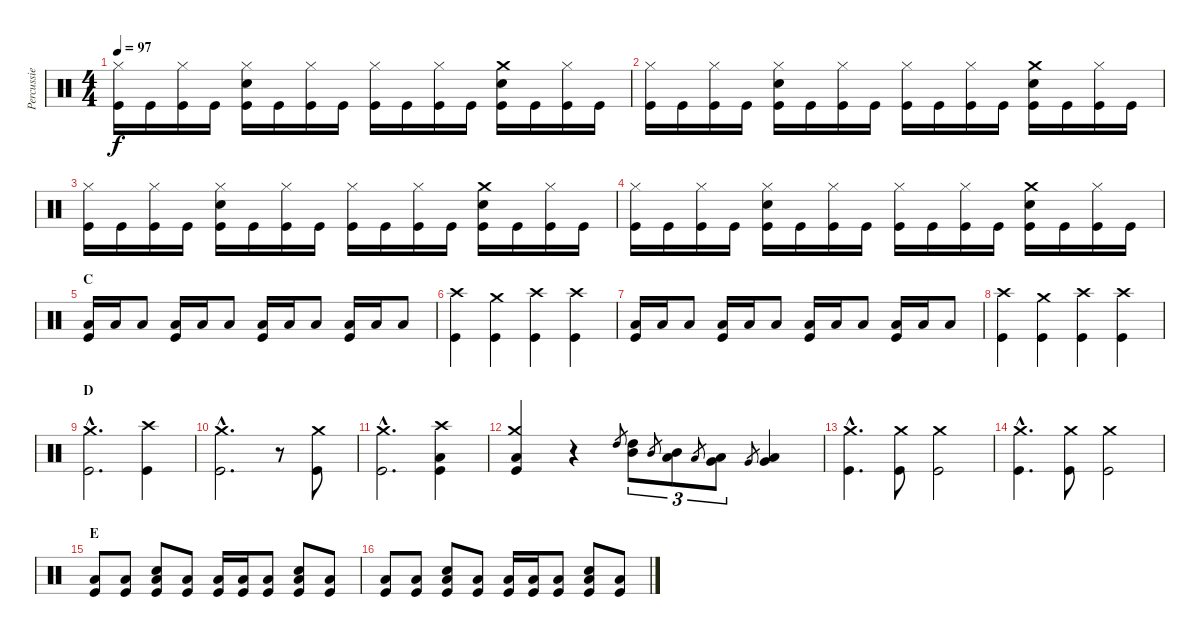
\track ("Percussie" "Percussie") {instrument percussion}
\staff {score}
\articulation defaults
\ts (4 4)
\tempo 97
\clef neutral
\ks c
("Hi-Hat (closed)" "Kick (hit)").16{dy f} "Kick (hit)".16 ("Hi-Hat (closed)" "Kick (hit)").16 "Kick (hit)".16 ("Hi-Hat (closed)" "Electric Snare (hit)" "Kick (hit)").16 "Kick (hit)".16 ("Hi-Hat (closed)" "Kick (hit)").16 "Kick (hit)".16 ("Hi-Hat (closed)" "Kick (hit)").16 "Kick (hit)".16 ("Hi-Hat (closed)" "Kick (hit)").16 "Kick (hit)".16 ("Crash medium (hit)" "Electric Snare (hit)" "Kick (hit)").16 "Kick (hit)".16 ("Hi-Hat (closed)" "Kick (hit)").16 "Kick (hit)".16 |
("Hi-Hat (closed)" "Kick (hit)").16 "Kick (hit)".16 ("Hi-Hat (closed)" "Kick (hit)").16 "Kick (hit)".16 ("Hi-Hat (closed)" "Electric Snare (hit)" "Kick (hit)").16 "Kick (hit)".16 ("Hi-Hat (closed)" "Kick (hit)").16 "Kick (hit)".16 ("Hi-Hat (closed)" "Kick (hit)").16 "Kick (hit)".16 ("Hi-Hat (closed)" "Kick (hit)").16 "Kick (hit)".16 ("Crash medium (hit)" "Electric Snare (hit)" "Kick (hit)").16 "Kick (hit)".16 ("Hi-Hat (closed)" "Kick (hit)").16 "Kick (hit)".16 |
("Hi-Hat (closed)" "Kick (hit)").16 "Kick (hit)".16 ("Hi-Hat (closed)" "Kick (hit)").16 "Kick (hit)".16 ("Hi-Hat (closed)" "Electric Snare (hit)" "Kick (hit)").16 "Kick (hit)".16 ("Hi-Hat (closed)" "Kick (hit)").16 "Kick (hit)".16 ("Hi-Hat (closed)" "Kick (hit)").16 "Kick (hit)".16 ("Hi-Hat (closed)" "Kick (hit)").16 "Kick (hit)".16 ("Crash medium (hit)" "Electric Snare (hit)" "Kick (hit)").16 "Kick (hit)".16 ("Hi-Hat (closed)" "Kick (hit)").16 "Kick (hit)".16 |
("Hi-Hat (closed)" "Kick (hit)").16 "Kick (hit)".16 ("Hi-Hat (closed)" "Kick (hit)").16 "Kick (hit)".16 ("Hi-Hat (closed)" "Electric Snare (hit)" "Kick (hit)").16 "Kick (hit)".16 ("Hi-Hat (closed)" "Kick (hit)").16 "Kick (hit)".16 ("Hi-Hat (closed)" "Kick (hit)").16 "Kick (hit)".16 ("Hi-Hat (closed)" "Kick (hit)").16 "Kick (hit)".16 ("Crash medium (hit)" "Electric Snare (hit)" "Kick (hit)").16 "Kick (hit)".16 ("Hi-Hat (closed)" "Kick (hit)").16 "Kick (hit)".16 |
\section ("" "C")
("Low Floor Tom (hit)" "Kick (hit)").16 "Low Floor Tom (hit)".16 "Low Floor Tom (hit)".8 ("Low Floor Tom (hit)" "Kick (hit)").16 "Low Floor Tom (hit)".16 "Low Floor Tom (hit)".8 ("Low Floor Tom (hit)" "Kick (hit)").16 "Low Floor Tom (hit)".16 "Low Floor Tom (hit)".8 ("Low Floor Tom (hit)" "Kick (hit)").16 "Low Floor Tom (hit)".16 "Low Floor Tom (hit)".8 |
("Crash high (hit)" "Kick (hit)").4 ("Crash medium (hit)" "Kick (hit)").4 ("Crash high (hit)" "Kick (hit)").4 ("Crash high (hit)" "Kick (hit)").4 |
("Low Floor Tom (hit)" "Kick (hit)").16 "Low Floor Tom (hit)".16 "Low Floor Tom (hit)".8 ("Low Floor Tom (hit)" "Kick (hit)").16 "Low Floor Tom (hit)".16 "Low Floor Tom (hit)".8 ("Low Floor Tom (hit)" "Kick (hit)").16 "Low Floor Tom (hit)".16 "Low Floor Tom (hit)".8 ("Low Floor Tom (hit)" "Kick (hit)").16 "Low Floor Tom (hit)".16 "Low Floor Tom (hit)".8 |
("Crash high (hit)" "Kick (hit)").4 ("Crash medium (hit)" "Kick (hit)").4 ("Crash high (hit)" "Kick (hit)").4 ("Crash high (hit)" "Kick (hit)").4 |
\section ("" "D")
("Crash medium (hit)"{hac} "Kick (hit)"{hac}).2{d} ("Crash high (hit)" "Kick (hit)").4 |
("Crash medium (hit)"{hac} "Kick (hit)"{hac}).2{d} r.8 ("Crash medium (hit)" "Kick (hit)").8 |
("Crash medium (hit)"{hac} "Kick (hit)"{hac}).2{d} ("Crash high (hit)" "Low Floor Tom (hit)" "Kick (hit)").4 |
("Crash medium (hit)" "Low Floor Tom (hit)" "Kick (hit)").4 r.4 "High Tom (hit)".8{gr} ("High Tom (hit)" "Mid Tom (hit)").8{tu (3 2)} "Mid Tom (hit)".8{gr} ("Mid Tom (hit)" "Low Tom (hit)").8{tu (3 2)} "Low Tom (hit)".8{gr} ("Low Tom (hit)" "Very Low Tom (hit)").8{tu (3 2)} "Very Low Tom (hit)".8{gr} ("Very Low Tom (hit)" "Low Floor Tom (hit)").4 |
("Crash medium (hit)"{hac} "Kick (hit)"{hac}).4{d} ("Crash medium (hit)" "Kick (hit)").8 ("Crash medium (hit)" "Kick (hit)").2 |
("Crash medium (hit)"{hac} "Kick (hit)"{hac}).4{d} ("Crash medium (hit)" "Kick (hit)").8 ("Crash medium (hit)" "Kick (hit)").2 |
\section ("" "E")
("Low Floor Tom (hit)" "Kick (hit)").8 ("Low Floor Tom (hit)" "Kick (hit)").8 ("Electric Snare (hit)" "Low Floor Tom (hit)" "Kick (hit)").8 ("Low Floor Tom (hit)" "Kick (hit)").8 ("Low Floor Tom (hit)" "Kick (hit)").16 ("Low Floor Tom (hit)" "Kick (hit)").16 ("Low Floor Tom (hit)" "Kick (hit)").8 ("Electric Snare (hit)" "Low Floor Tom (hit)" "Kick (hit)").8 ("Low Floor Tom (hit)" "Kick (hit)").8 |
("Low Floor Tom (hit)" "Kick (hit)").8 ("Low Floor Tom (hit)" "Kick (hit)").8 ("Electric Snare (hit)" "Low Floor Tom (hit)" "Kick (hit)").8 ("Low Floor Tom (hit)" "Kick (hit)").8 ("Low Floor Tom (hit)" "Kick (hit)").16 ("Low Floor Tom (hit)" "Kick (hit)").16 ("Low Floor Tom (hit)" "Kick (hit)").8 ("Electric Snare (hit)" "Low Floor Tom (hit)" "Kick (hit)").8 ("Low Floor Tom (hit)" "Kick (hit)").8
